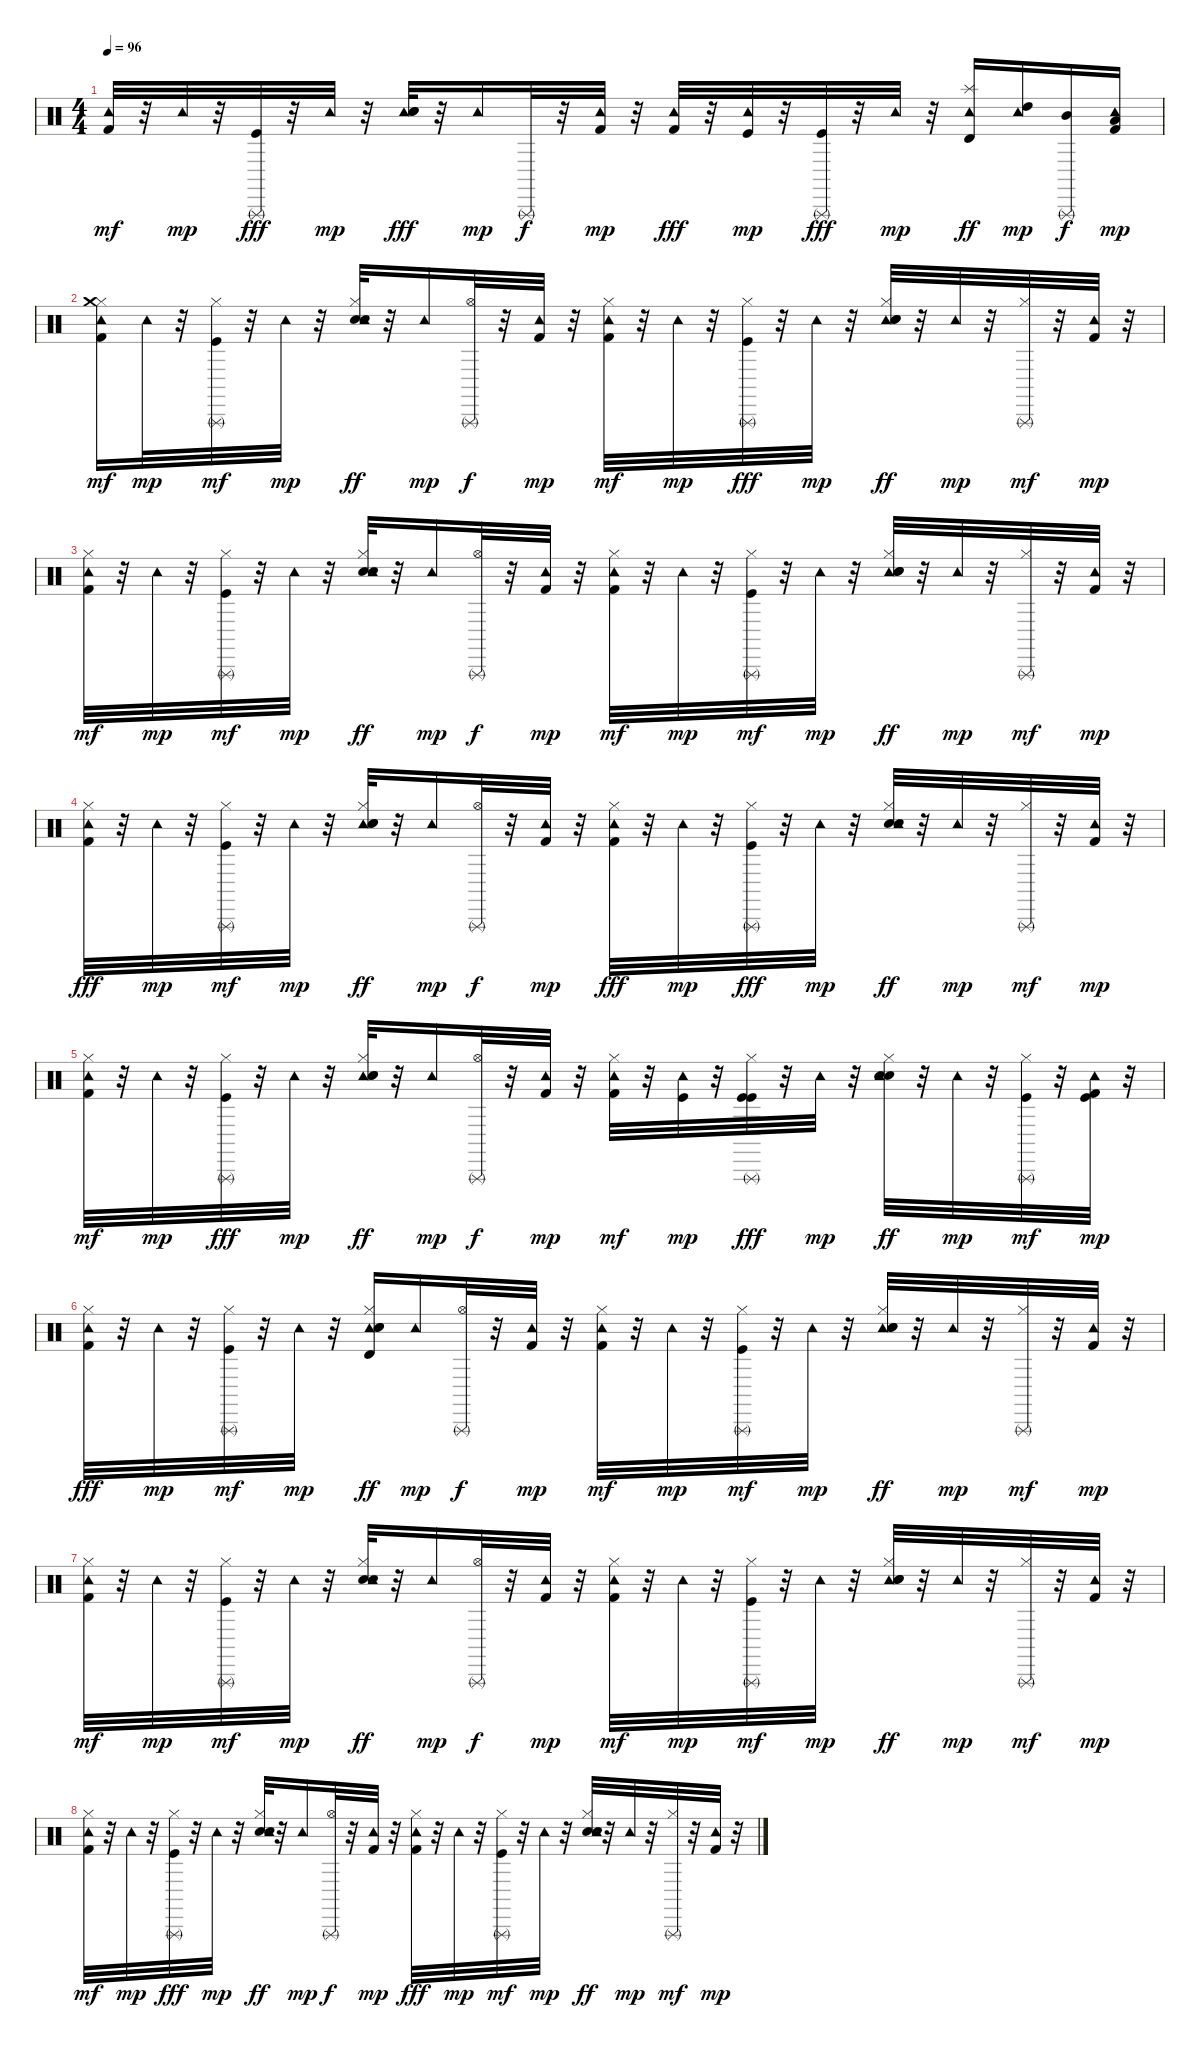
\track "" {instrument percussion}
\staff {score}
\articulation defaults
\ts (4 4)
\tempo 96
\clef neutral
\ks c
("Kick (hit) 2" "Tambourine (hit)").32{dy mf} r.32 "Tambourine (hit)".32{dy mp} r.32 ("Kick (hit)" "Triangle (rnute)").32{dy fff} r.32 "Tambourine (hit)".32{dy mp} r.32 ("Tambourine (hit)" "Electric Snare (hit)" "Hand Clap (hit)").32{dy fff} r.32 "Tambourine (hit)".16{dy mp} "Triangle (rnute)".32{dy f} r.32 ("Kick (hit) 2" "Tambourine (hit)").32{dy mp} r.32 ("Tambourine (hit)" "Kick (hit) 2").32{dy fff} r.32 ("Kick (hit)" "Tambourine (hit)").32{dy mp} r.32 ("Triangle (rnute)" "Kick (hit)").32{dy fff} r.32 "Tambourine (hit)".32{dy mp} r.32 ("Splash (hit)" "Tambourine (hit)" "Timbale high (hit)").16{dy ff} ("Tambourine (hit)" "High Tom (hit)").16{dy mp} ("Triangle (rnute)" "Mid Tom (hit)").16{dy f} ("Tambourine (hit)" "Low Tom (hit)" "Kick (hit) 2").16{dy mp} |
("Kick (hit) 2" "Tambourine (hit)" "Hi-Hat (closed)" "Crash medium (hit)").16{dy mf} "Tambourine (hit)".32{dy mp} r.32 ("Kick (hit)" "Triangle (rnute)" "Hi-Hat (closed)").32{dy mf} r.32 "Tambourine (hit)".32{dy mp} r.32 ("Hi-Hat (closed)" "Electric Snare (hit)" "Tambourine (hit)" "Hand Clap (hit)").32{dy ff} r.32 "Tambourine (hit)".16{dy mp} ("Hi-Hat (open)" "Triangle (rnute)").32{dy f} r.32 ("Tambourine (hit)" "Kick (hit) 2").32{dy mp} r.32 ("Kick (hit) 2" "Tambourine (hit)" "Hi-Hat (closed)").32{dy mf} r.32 "Tambourine (hit)".32{dy mp} r.32 ("Triangle (rnute)" "Hi-Hat (closed)" "Kick (hit)").32{dy fff} r.32 "Tambourine (hit)".32{dy mp} r.32 ("Tambourine (hit)" "Electric Snare (hit)" "Hi-Hat (closed)" "Hand Clap (hit)").32{dy ff} r.32 "Tambourine (hit)".32{dy mp} r.32 ("Triangle (rnute)" "Hi-Hat (closed)").32{dy mf} r.32 ("Kick (hit) 2" "Tambourine (hit)").32{dy mp} r.32 |
("Kick (hit) 2" "Tambourine (hit)" "Hi-Hat (closed)").32{dy mf} r.32 "Tambourine (hit)".32{dy mp} r.32 ("Kick (hit)" "Hi-Hat (closed)" "Triangle (rnute)").32{dy mf} r.32 "Tambourine (hit)".32{dy mp} r.32 ("Hi-Hat (closed)" "Electric Snare (hit)" "Tambourine (hit)" "Hand Clap (hit)").32{dy ff} r.32 "Tambourine (hit)".16{dy mp} ("Hi-Hat (open)" "Triangle (rnute)").32{dy f} r.32 ("Tambourine (hit)" "Kick (hit) 2").32{dy mp} r.32 ("Kick (hit) 2" "Tambourine (hit)" "Hi-Hat (closed)").32{dy mf} r.32 "Tambourine (hit)".32{dy mp} r.32 ("Triangle (rnute)" "Kick (hit)" "Hi-Hat (closed)").32{dy mf} r.32 "Tambourine (hit)".32{dy mp} r.32 ("Tambourine (hit)" "Hi-Hat (closed)" "Electric Snare (hit)" "Hand Clap (hit)").32{dy ff} r.32 "Tambourine (hit)".32{dy mp} r.32 ("Triangle (rnute)" "Hi-Hat (closed)").32{dy mf} r.32 ("Tambourine (hit)" "Kick (hit) 2").32{dy mp} r.32 |
("Tambourine (hit)" "Kick (hit) 2" "Hi-Hat (closed)").32{dy fff} r.32 "Tambourine (hit)".32{dy mp} r.32 ("Triangle (rnute)" "Kick (hit)" "Hi-Hat (closed)").32{dy mf} r.32 "Tambourine (hit)".32{dy mp} r.32 ("Tambourine (hit)" "Electric Snare (hit)" "Hi-Hat (closed)" "Hand Clap (hit)").32{dy ff} r.32 "Tambourine (hit)".16{dy mp} ("Hi-Hat (open)" "Triangle (rnute)").32{dy f} r.32 ("Tambourine (hit)" "Kick (hit) 2").32{dy mp} r.32 ("Hi-Hat (closed)" "Tambourine (hit)" "Kick (hit) 2").32{dy fff} r.32 "Tambourine (hit)".32{dy mp} r.32 ("Hi-Hat (closed)" "Triangle (rnute)" "Kick (hit)").32{dy fff} r.32 "Tambourine (hit)".32{dy mp} r.32 ("Hi-Hat (closed)" "Electric Snare (hit)" "Tambourine (hit)" "Hand Clap (hit)").32{dy ff} r.32 "Tambourine (hit)".32{dy mp} r.32 ("Triangle (rnute)" "Hi-Hat (closed)").32{dy mf} r.32 ("Tambourine (hit)" "Kick (hit) 2").32{dy mp} r.32 |
("Kick (hit) 2" "Tambourine (hit)" "Hi-Hat (closed)").32{dy mf} r.32 "Tambourine (hit)".32{dy mp} r.32 ("Hi-Hat (closed)" "Kick (hit)" "Triangle (rnute)").32{dy fff} r.32 "Tambourine (hit)".32{dy mp} r.32 ("Tambourine (hit)" "Electric Snare (hit)" "Hi-Hat (closed)" "Hand Clap (hit)").32{dy ff} r.32 "Tambourine (hit)".16{dy mp} ("Hi-Hat (open)" "Triangle (rnute)").32{dy f} r.32 ("Kick (hit) 2" "Tambourine (hit)").32{dy mp} r.32 ("Hi-Hat (closed)" "Kick (hit) 2" "Tambourine (hit)").32{dy mf} r.32 ("Kick (hit)" "Tambourine (hit)").32{dy mp} r.32 ("Triangle (rnute)" "Kick (hit)" "Hi-Hat (closed)" "Kick (hit)").32{dy fff} r.32 "Tambourine (hit)".32{dy mp} r.32 ("Hi-Hat (closed)" "Electric Snare (hit)" "Tambourine (hit)" "Hand Clap (hit)").32{dy ff} r.32 "Tambourine (hit)".32{dy mp} r.32 ("Kick (hit)" "Hi-Hat (closed)" "Triangle (rnute)").32{dy mf} r.32 ("Kick (hit)" "Kick (hit) 2" "Tambourine (hit)").32{dy mp} r.32 |
("Tambourine (hit)" "Kick (hit) 2" "Hi-Hat (closed)").32{dy fff} r.32 "Tambourine (hit)".32{dy mp} r.32 ("Kick (hit)" "Hi-Hat (closed)" "Triangle (rnute)").32{dy mf} r.32 "Tambourine (hit)".32{dy mp} r.32 ("Tambourine (hit)" "Hi-Hat (closed)" "Electric Snare (hit)" "Timbale high (hit)" "Hand Clap (hit)").16{dy ff} "Tambourine (hit)".16{dy mp} ("Triangle (rnute)" "Hi-Hat (open)").32{dy f} r.32 ("Tambourine (hit)" "Kick (hit) 2").32{dy mp} r.32 ("Hi-Hat (closed)" "Kick (hit) 2" "Tambourine (hit)").32{dy mf} r.32 "Tambourine (hit)".32{dy mp} r.32 ("Kick (hit)" "Hi-Hat (closed)" "Triangle (rnute)").32{dy mf} r.32 "Tambourine (hit)".32{dy mp} r.32 ("Hi-Hat (closed)" "Tambourine (hit)" "Electric Snare (hit)" "Hand Clap (hit)").32{dy ff} r.32 "Tambourine (hit)".32{dy mp} r.32 ("Triangle (rnute)" "Hi-Hat (closed)").32{dy mf} r.32 ("Kick (hit) 2" "Tambourine (hit)").32{dy mp} r.32 |
("Kick (hit) 2" "Tambourine (hit)" "Hi-Hat (closed)").32{dy mf} r.32 "Tambourine (hit)".32{dy mp} r.32 ("Kick (hit)" "Triangle (rnute)" "Hi-Hat (closed)").32{dy mf} r.32 "Tambourine (hit)".32{dy mp} r.32 ("Electric Snare (hit)" "Tambourine (hit)" "Hi-Hat (closed)" "Hand Clap (hit)").32{dy ff} r.32 "Tambourine (hit)".16{dy mp} ("Hi-Hat (open)" "Triangle (rnute)").32{dy f} r.32 ("Tambourine (hit)" "Kick (hit) 2").32{dy mp} r.32 ("Kick (hit) 2" "Tambourine (hit)" "Hi-Hat (closed)").32{dy mf} r.32 "Tambourine (hit)".32{dy mp} r.32 ("Kick (hit)" "Triangle (rnute)" "Hi-Hat (closed)").32{dy mf} r.32 "Tambourine (hit)".32{dy mp} r.32 ("Tambourine (hit)" "Hi-Hat (closed)" "Electric Snare (hit)" "Hand Clap (hit)").32{dy ff} r.32 "Tambourine (hit)".32{dy mp} r.32 ("Triangle (rnute)" "Hi-Hat (closed)").32{dy mf} r.32 ("Kick (hit) 2" "Tambourine (hit)").32{dy mp} r.32 |
("Kick (hit) 2" "Hi-Hat (closed)" "Tambourine (hit)").32{dy mf} r.32 "Tambourine (hit)".32{dy mp} r.32 ("Hi-Hat (closed)" "Kick (hit)" "Triangle (rnute)").32{dy fff} r.32 "Tambourine (hit)".32{dy mp} r.32 ("Electric Snare (hit)" "Hi-Hat (closed)" "Tambourine (hit)" "Hand Clap (hit)").32{dy ff} r.32 "Tambourine (hit)".16{dy mp} ("Triangle (rnute)" "Hi-Hat (open)").32{dy f} r.32 ("Tambourine (hit)" "Kick (hit) 2").32{dy mp} r.32 ("Hi-Hat (closed)" "Tambourine (hit)" "Kick (hit) 2").32{dy fff} r.32 "Tambourine (hit)".32{dy mp} r.32 ("Kick (hit)" "Triangle (rnute)" "Hi-Hat (closed)").32{dy mf} r.32 "Tambourine (hit)".32{dy mp} r.32 ("Electric Snare (hit)" "Tambourine (hit)" "Hi-Hat (closed)" "Hand Clap (hit)").32{dy ff} r.32 "Tambourine (hit)".32{dy mp} r.32 ("Hi-Hat (closed)" "Triangle (rnute)").32{dy mf} r.32 ("Kick (hit) 2" "Tambourine (hit)").32{dy mp} r.32
